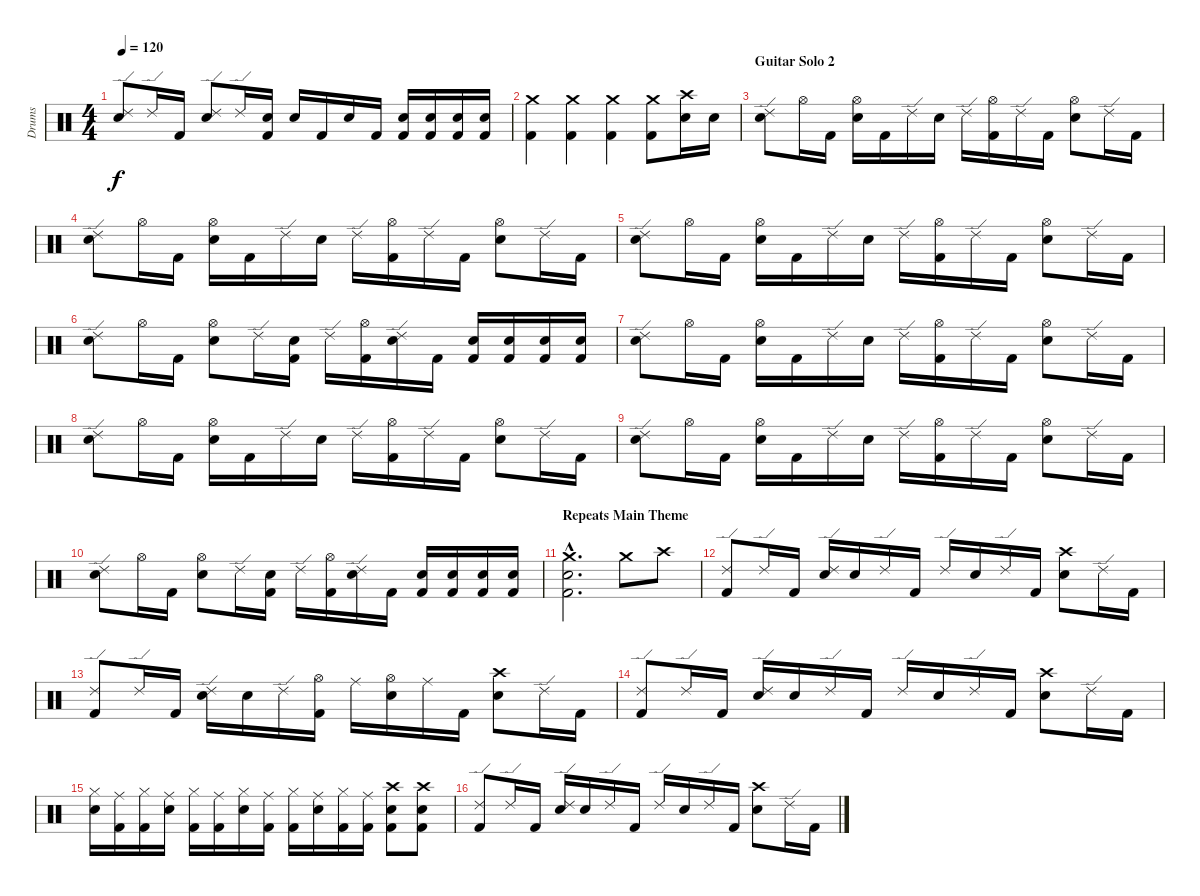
\track ("Drums" "Drums") {instrument percussion}
\staff {score}
\articulation defaults
\ts (4 4)
\tempo 120
\clef neutral
\ks c
("Ride (edge) 2" "Electric Snare (hit)").8{dy f} "Ride (edge) 2".16 "Kick (hit) 2".16 ("Ride (edge) 2" "Electric Snare (hit)").8 "Ride (edge) 2".16 ("Electric Snare (hit)" "Kick (hit) 2").16 "Electric Snare (hit)".16 "Kick (hit) 2".16 "Electric Snare (hit)".16 "Kick (hit) 2".16 ("Electric Snare (hit)" "Kick (hit) 2").16 ("Electric Snare (hit)" "Kick (hit) 2").16 ("Electric Snare (hit)" "Kick (hit) 2").16 ("Electric Snare (hit)" "Kick (hit) 2").16 |
("Crash medium (hit)" "Kick (hit) 2").4 ("Crash medium (hit)" "Kick (hit) 2").4 ("Crash medium (hit)" "Kick (hit) 2").4 ("Crash medium (hit)" "Kick (hit) 2").8 ("Crash high (hit)" "Electric Snare (hit)").16 "Electric Snare (hit)".16 |
\section ("" "Guitar Solo 2")
("Ride (edge) 2" "Electric Snare (hit)").8 "Hi-Hat (open)".16 "Kick (hit) 2".16 ("Hi-Hat (open)" "Electric Snare (hit)").16 "Kick (hit) 2".16 "Ride (edge) 2".16 "Electric Snare (hit)".16 "Ride (edge) 2".16 ("Hi-Hat (open)" "Kick (hit) 2").16 "Ride (edge) 2".16 "Kick (hit) 2".16 ("Hi-Hat (open)" "Electric Snare (hit)").8 "Ride (edge) 2".16 "Kick (hit) 2".16 |
("Ride (edge) 2" "Electric Snare (hit)").8 "Hi-Hat (open)".16 "Kick (hit) 2".16 ("Hi-Hat (open)" "Electric Snare (hit)").16 "Kick (hit) 2".16 "Ride (edge) 2".16 "Electric Snare (hit)".16 "Ride (edge) 2".16 ("Hi-Hat (open)" "Kick (hit) 2").16 "Ride (edge) 2".16 "Kick (hit) 2".16 ("Hi-Hat (open)" "Electric Snare (hit)").8 "Ride (edge) 2".16 "Kick (hit) 2".16 |
("Ride (edge) 2" "Electric Snare (hit)").8 "Hi-Hat (open)".16 "Kick (hit) 2".16 ("Hi-Hat (open)" "Electric Snare (hit)").16 "Kick (hit) 2".16 "Ride (edge) 2".16 "Electric Snare (hit)".16 "Ride (edge) 2".16 ("Hi-Hat (open)" "Kick (hit) 2").16 "Ride (edge) 2".16 "Kick (hit) 2".16 ("Hi-Hat (open)" "Electric Snare (hit)").8 "Ride (edge) 2".16 "Kick (hit) 2".16 |
("Ride (edge) 2" "Electric Snare (hit)").8 "Hi-Hat (open)".16 "Kick (hit) 2".16 ("Hi-Hat (open)" "Electric Snare (hit)").8 "Ride (edge) 2".16 ("Electric Snare (hit)" "Kick (hit) 2").16 "Ride (edge) 2".16 ("Hi-Hat (open)" "Kick (hit) 2").16 ("Ride (edge) 2" "Electric Snare (hit)").16 "Kick (hit) 2".16 ("Electric Snare (hit)" "Kick (hit) 2").16 ("Electric Snare (hit)" "Kick (hit) 2").16 ("Electric Snare (hit)" "Kick (hit) 2").16 ("Electric Snare (hit)" "Kick (hit) 2").16 |
("Ride (edge) 2" "Electric Snare (hit)").8 "Hi-Hat (open)".16 "Kick (hit) 2".16 ("Hi-Hat (open)" "Electric Snare (hit)").16 "Kick (hit) 2".16 "Ride (edge) 2".16 "Electric Snare (hit)".16 "Ride (edge) 2".16 ("Hi-Hat (open)" "Kick (hit) 2").16 "Ride (edge) 2".16 "Kick (hit) 2".16 ("Hi-Hat (open)" "Electric Snare (hit)").8 "Ride (edge) 2".16 "Kick (hit) 2".16 |
("Ride (edge) 2" "Electric Snare (hit)").8 "Hi-Hat (open)".16 "Kick (hit) 2".16 ("Hi-Hat (open)" "Electric Snare (hit)").16 "Kick (hit) 2".16 "Ride (edge) 2".16 "Electric Snare (hit)".16 "Ride (edge) 2".16 ("Hi-Hat (open)" "Kick (hit) 2").16 "Ride (edge) 2".16 "Kick (hit) 2".16 ("Hi-Hat (open)" "Electric Snare (hit)").8 "Ride (edge) 2".16 "Kick (hit) 2".16 |
("Ride (edge) 2" "Electric Snare (hit)").8 "Hi-Hat (open)".16 "Kick (hit) 2".16 ("Hi-Hat (open)" "Electric Snare (hit)").16 "Kick (hit) 2".16 "Ride (edge) 2".16 "Electric Snare (hit)".16 "Ride (edge) 2".16 ("Hi-Hat (open)" "Kick (hit) 2").16 "Ride (edge) 2".16 "Kick (hit) 2".16 ("Hi-Hat (open)" "Electric Snare (hit)").8 "Ride (edge) 2".16 "Kick (hit) 2".16 |
("Ride (edge) 2" "Electric Snare (hit)").8 "Hi-Hat (open)".16 "Kick (hit) 2".16 ("Hi-Hat (open)" "Electric Snare (hit)").8 "Ride (edge) 2".16 ("Electric Snare (hit)" "Kick (hit) 2").16 "Ride (edge) 2".16 ("Hi-Hat (open)" "Kick (hit) 2").16 ("Ride (edge) 2" "Electric Snare (hit)").16 "Kick (hit) 2".16 ("Electric Snare (hit)" "Kick (hit) 2").16 ("Electric Snare (hit)" "Kick (hit) 2").16 ("Electric Snare (hit)" "Kick (hit) 2").16 ("Electric Snare (hit)" "Kick (hit) 2").16 |
\section ("" "Repeats Main Theme")
("Crash medium (hit)"{hac} "Electric Snare (hit)"{hac} "Kick (hit) 2"{hac}).2{d} "Crash medium (hit)".8 "Crash high (hit)".8 |
("Ride (edge) 2" "Kick (hit) 2").8 "Ride (edge) 2".16 "Kick (hit) 2".16 ("Ride (edge) 2" "Electric Snare (hit)").16 "Electric Snare (hit)".16 "Ride (edge) 2".16 "Kick (hit) 2".16 "Ride (edge) 2".16 "Electric Snare (hit)".16 "Ride (edge) 2".16 "Kick (hit) 2".16 ("Crash high (hit)" "Electric Snare (hit)").8 "Ride (edge) 2".16 "Kick (hit) 2".16 |
("Ride (edge) 2" "Kick (hit) 2").8 "Ride (edge) 2".16 "Kick (hit) 2".16 ("Ride (edge) 2" "Electric Snare (hit)").16 "Electric Snare (hit)".16 "Ride (edge) 2".16 ("Hi-Hat (open)" "Kick (hit) 2").16 "Ride (middle)".16 ("Hi-Hat (open)" "Electric Snare (hit)").16 "Ride (middle)".16 "Kick (hit) 2".16 ("Crash high (hit)" "Electric Snare (hit)").8 "Ride (edge) 2".16 "Kick (hit) 2".16 |
("Ride (edge) 2" "Kick (hit) 2").8 "Ride (edge) 2".16 "Kick (hit) 2".16 ("Ride (edge) 2" "Electric Snare (hit)").16 "Electric Snare (hit)".16 "Ride (edge) 2".16 "Kick (hit) 2".16 "Ride (edge) 2".16 "Electric Snare (hit)".16 "Ride (edge) 2".16 "Kick (hit) 2".16 ("Crash high (hit)" "Electric Snare (hit)").8 "Ride (edge) 2".16 "Kick (hit) 2".16 |
("Hi-Hat (closed)" "Electric Snare (hit)").16 ("Ride (middle)" "Kick (hit) 2").16 ("Hi-Hat (closed)" "Kick (hit) 2").16 ("Ride (middle)" "Electric Snare (hit)").16 ("Hi-Hat (closed)" "Kick (hit) 2").16 ("Ride (middle)" "Kick (hit) 2").16 ("Hi-Hat (closed)" "Electric Snare (hit)").16 ("Ride (middle)" "Kick (hit) 2").16 ("Hi-Hat (closed)" "Kick (hit) 2").16 ("Ride (middle)" "Electric Snare (hit)").16 ("Hi-Hat (closed)" "Kick (hit) 2").16 ("Ride (middle)" "Kick (hit) 2").16 ("Crash high (hit)" "Electric Snare (hit)" "Kick (hit) 2").8 ("Crash high (hit)" "Electric Snare (hit)" "Kick (hit) 2").8 |
("Ride (edge) 2" "Kick (hit) 2").8 "Ride (edge) 2".16 "Kick (hit) 2".16 ("Ride (edge) 2" "Electric Snare (hit)").16 "Electric Snare (hit)".16 "Ride (edge) 2".16 "Kick (hit) 2".16 "Ride (edge) 2".16 "Electric Snare (hit)".16 "Ride (edge) 2".16 "Kick (hit) 2".16 ("Crash high (hit)" "Electric Snare (hit)").8 "Ride (edge) 2".16 "Kick (hit) 2".16
